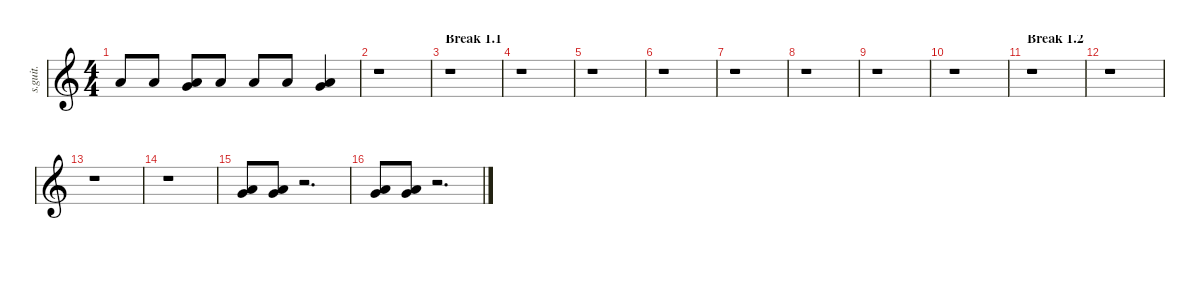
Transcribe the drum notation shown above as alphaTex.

\defaultSystemsLayout 4
\hideDynamics
\bracketExtendMode nobrackets
\track ("Clown" "s.guit.") {instrument percussion}
\staff {score}
\articulation defaults
\ts (4 4)
\tempo (210 hide)
\clef g2
\ks c "Low Floor Tom (hit)".8{lyrics (0 "") lyrics (1 "") lyrics (2 "") lyrics (3 "") lyrics (4 "") dy f} "Low Floor Tom (hit)".8{lyrics (0 "") lyrics (1 "") lyrics (2 "") lyrics (3 "") lyrics (4 "")}
("Very Low Tom (hit)" "Low Floor Tom (hit)").8{lyrics (0 "") lyrics (1 "") lyrics (2 "") lyrics (3 "") lyrics (4 "")} "Low Floor Tom (hit)".8{lyrics (0 "") lyrics (1 "") lyrics (2 "") lyrics (3 "") lyrics (4 "")} "Low Floor Tom (hit)".8{lyrics (0 "") lyrics (1 "") lyrics (2 "") lyrics (3 "") lyrics (4 "")} "Low Floor Tom (hit)".8{lyrics (0 "") lyrics (1 "") lyrics (2 "") lyrics (3 "") lyrics (4 "")} ("Very Low Tom (hit)" "Low Floor Tom (hit)").4{lyrics (0 "") lyrics (1 "") lyrics (2 "") lyrics (3 "") lyrics (4 "")} |
r.1 |
\section ("" "Break 1.1")
r.1 |
r.1 |
r.1 |
r.1 |
r.1 |
r.1 |
r.1 |
r.1 |
\section ("" "Break 1.2")
\tempo (188 hide)
r.1 |
r.1 |
r.1 |
r.1 |
\tempo (195 hide)
("Very Low Tom (hit)" "Low Floor Tom (hit)").8{lyrics (0 "") lyrics (1 "") lyrics (2 "") lyrics (3 "") lyrics (4 "")} ("Very Low Tom (hit)" "Low Floor Tom (hit)").8{lyrics (0 "") lyrics (1 "") lyrics (2 "") lyrics (3 "") lyrics (4 "")} r.2{d} |
("Very Low Tom (hit)" "Low Floor Tom (hit)").8{lyrics (0 "") lyrics (1 "") lyrics (2 "") lyrics (3 "") lyrics (4 "")} ("Very Low Tom (hit)" "Low Floor Tom (hit)").8{lyrics (0 "") lyrics (1 "") lyrics (2 "") lyrics (3 "") lyrics (4 "")} r.2{d}
